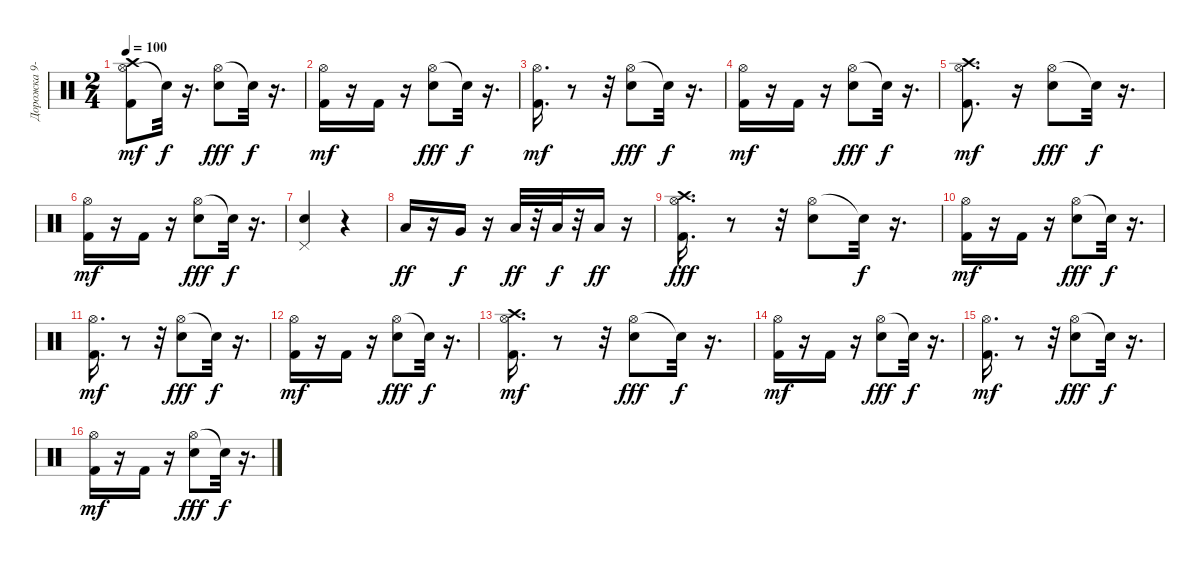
\track ("Дорожка 9-10" "Дорожка 9-") {instrument percussion}
\staff {score}
\articulation defaults
\ts (2 4)
\tempo 100
\clef neutral
\ks c
("Hi-Hat (open)" "Crash high (hit)" "Kick (hit) 2").8{dy mf} "Snare (hit)"{t}.32{dy f} r.16{d} ("Hi-Hat (open)" "Snare (hit) 2").8{dy fff} "Snare (hit)"{t}.32{dy f} r.16{d} |
("Hi-Hat (open)" "Kick (hit) 2").16{dy mf} r.16 "Kick (hit) 2".16 r.16 ("Hi-Hat (open)" "Snare (hit) 2").8{dy fff} "Snare (hit)"{t}.32{dy f} r.16{d} |
("Hi-Hat (open)" "Kick (hit) 2").16{d dy mf} r.8 r.32 ("Hi-Hat (open)" "Snare (hit) 2").8{dy fff} "Snare (hit)"{t}.32{dy f} r.16{d} |
("Hi-Hat (open)" "Kick (hit) 2").16{dy mf} r.16 "Kick (hit) 2".16 r.16 ("Hi-Hat (open)" "Snare (hit) 2").8{dy fff} "Snare (hit)"{t}.32{dy f} r.16{d} |
("Hi-Hat (open)" "Crash high (hit)" "Kick (hit) 2").8{d dy mf} r.16 ("Hi-Hat (open)" "Snare (hit) 2").8{dy fff} "Snare (hit)"{t}.32{dy f} r.16{d} |
("Hi-Hat (open)" "Kick (hit) 2").16{dy mf} r.16 "Kick (hit) 2".16 r.16 ("Hi-Hat (open)" "Snare (hit) 2").8{dy fff} "Snare (hit)"{t}.32{dy f} r.16{d} |
("Pedal Hi-Hat (hit)" "Snare (hit) 2").4 r.4 |
"Low Floor Tom (hit)".16{dy ff} r.16 "Very Low Tom (hit)".16{dy f} r.16 "Low Tom (hit)".32{dy ff} r.32 "Low Tom (hit)".32{dy f} r.32 "Low Tom (hit)".16{dy ff} r.16 |
("Hi-Hat (open)" "Kick (hit) 2" "Crash high (hit)").16{d dy fff} r.8 r.32 ("Hi-Hat (open)" "Snare (hit) 2").8 "Snare (hit)"{t}.32{dy f} r.16{d} |
("Hi-Hat (open)" "Kick (hit) 2").16{dy mf} r.16 "Kick (hit) 2".16 r.16 ("Hi-Hat (open)" "Snare (hit) 2").8{dy fff} "Snare (hit)"{t}.32{dy f} r.16{d} |
("Hi-Hat (open)" "Kick (hit) 2").16{d dy mf} r.8 r.32 ("Hi-Hat (open)" "Snare (hit) 2").8{dy fff} "Snare (hit)"{t}.32{dy f} r.16{d} |
("Hi-Hat (open)" "Kick (hit) 2").16{dy mf} r.16 "Kick (hit) 2".16 r.16 ("Hi-Hat (open)" "Snare (hit) 2").8{dy fff} "Snare (hit)"{t}.32{dy f} r.16{d} |
("Hi-Hat (open)" "Crash high (hit)" "Kick (hit) 2").16{d dy mf} r.8 r.32 ("Hi-Hat (open)" "Snare (hit) 2").8{dy fff} "Snare (hit)"{t}.32{dy f} r.16{d} |
("Hi-Hat (open)" "Kick (hit) 2").16{dy mf} r.16 "Kick (hit) 2".16 r.16 ("Hi-Hat (open)" "Snare (hit) 2").8{dy fff} "Snare (hit)"{t}.32{dy f} r.16{d} |
("Hi-Hat (open)" "Kick (hit) 2").16{d dy mf} r.8 r.32 ("Hi-Hat (open)" "Snare (hit) 2").8{dy fff} "Snare (hit)"{t}.32{dy f} r.16{d} |
("Hi-Hat (open)" "Kick (hit) 2").16{dy mf} r.16 "Kick (hit) 2".16 r.16 ("Hi-Hat (open)" "Snare (hit) 2").8{dy fff} "Snare (hit)"{t}.32{dy f} r.16{d}
